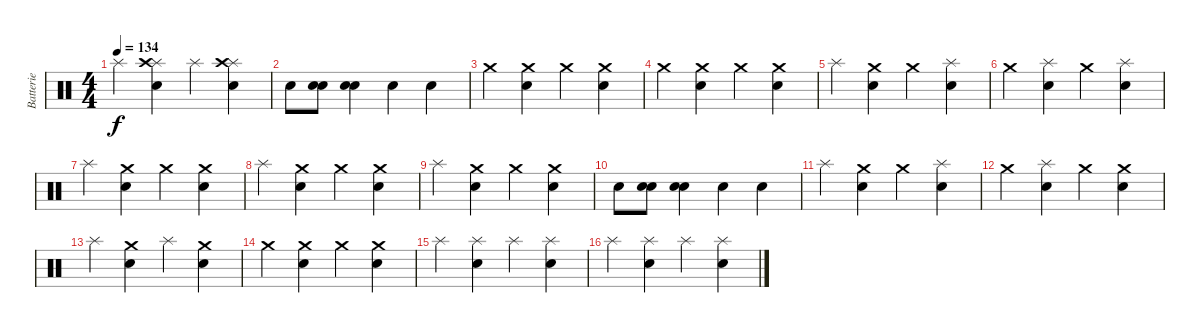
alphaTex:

\track ("Batterie" "Batterie") {instrument percussion}
\staff {score}
\articulation defaults
\ts (4 4)
\tempo 134
\clef neutral
\ks c "Splash (hit)".4{dy f}
("Splash (hit)" "Electric Snare (hit)" "Crash high (hit)").4 "Splash (hit)".4 ("Splash (hit)" "Electric Snare (hit)" "Crash high (hit)").4 |
"Electric Snare (hit)".8 ("Electric Snare (hit)" "Electric Snare (hit)").8 ("Electric Snare (hit)" "Electric Snare (hit)").4 "Electric Snare (hit)".4 "Electric Snare (hit)".4 |
"Crash medium (hit)".4 ("Crash medium (hit)" "Electric Snare (hit)").4 "Crash medium (hit)".4 ("Crash medium (hit)" "Electric Snare (hit)").4 |
"Crash medium (hit)".4 ("Crash medium (hit)" "Electric Snare (hit)").4 "Crash medium (hit)".4 ("Crash medium (hit)" "Electric Snare (hit)").4 |
"Splash (hit)".4 ("Crash medium (hit)" "Electric Snare (hit)").4 "Crash medium (hit)".4 ("Splash (hit)" "Electric Snare (hit)").4 |
"Crash medium (hit)".4 ("Splash (hit)" "Electric Snare (hit)").4 "Crash medium (hit)".4 ("Splash (hit)" "Electric Snare (hit)").4 |
"Splash (hit)".4 ("Crash medium (hit)" "Electric Snare (hit)").4 "Crash medium (hit)".4 ("Crash medium (hit)" "Electric Snare (hit)").4 |
"Splash (hit)".4 ("Crash medium (hit)" "Electric Snare (hit)").4 "Crash medium (hit)".4 ("Crash medium (hit)" "Electric Snare (hit)").4 |
"Splash (hit)".4 ("Crash medium (hit)" "Electric Snare (hit)").4 "Crash medium (hit)".4 ("Crash medium (hit)" "Electric Snare (hit)").4 |
"Electric Snare (hit)".8 ("Electric Snare (hit)" "Electric Snare (hit)").8 ("Electric Snare (hit)" "Electric Snare (hit)").4 "Electric Snare (hit)".4 "Electric Snare (hit)".4 |
"Splash (hit)".4 ("Crash medium (hit)" "Electric Snare (hit)").4 "Crash medium (hit)".4 ("Splash (hit)" "Electric Snare (hit)").4 |
"Crash medium (hit)".4 ("Splash (hit)" "Electric Snare (hit)").4 "Crash medium (hit)".4 ("Crash medium (hit)" "Electric Snare (hit)").4 |
"Splash (hit)".4 ("Crash medium (hit)" "Electric Snare (hit)").4 "Splash (hit)".4 ("Crash medium (hit)" "Electric Snare (hit)").4 |
"Crash medium (hit)".4 ("Crash medium (hit)" "Electric Snare (hit)").4 "Crash medium (hit)".4 ("Crash medium (hit)" "Electric Snare (hit)").4 |
"Splash (hit)".4 ("Splash (hit)" "Electric Snare (hit)").4 "Splash (hit)".4 ("Splash (hit)" "Electric Snare (hit)").4 |
"Splash (hit)".4 ("Splash (hit)" "Electric Snare (hit)").4 "Splash (hit)".4 ("Splash (hit)" "Electric Snare (hit)").4
